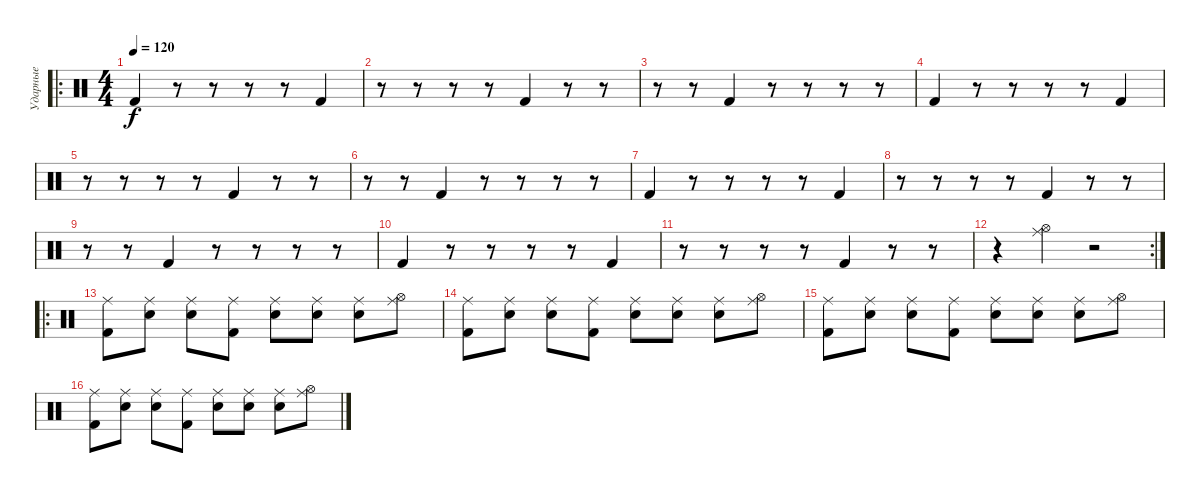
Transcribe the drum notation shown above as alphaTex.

\track ("Ударные" "Ударные") {instrument percussion}
\staff {score}
\articulation defaults
\ro
\ts (4 4)
\tempo 120
\clef neutral
\ks c "Kick (hit) 2".4{dy f}
r.8 r.8 r.8 r.8 "Kick (hit) 2".4 |
r.8 r.8 r.8 r.8 "Kick (hit) 2".4 r.8 r.8 |
r.8 r.8 "Kick (hit) 2".4 r.8 r.8 r.8 r.8 |
"Kick (hit) 2".4 r.8 r.8 r.8 r.8 "Kick (hit) 2".4 |
r.8 r.8 r.8 r.8 "Kick (hit) 2".4 r.8 r.8 |
r.8 r.8 "Kick (hit) 2".4 r.8 r.8 r.8 r.8 |
"Kick (hit) 2".4 r.8 r.8 r.8 r.8 "Kick (hit) 2".4 |
r.8 r.8 r.8 r.8 "Kick (hit) 2".4 r.8 r.8 |
r.8 r.8 "Kick (hit) 2".4 r.8 r.8 r.8 r.8 |
"Kick (hit) 2".4 r.8 r.8 r.8 r.8 "Kick (hit) 2".4 |
r.8 r.8 r.8 r.8 "Kick (hit) 2".4 r.8 r.8 |
\rc 2
r.4 ("Ride (middle)" "Hi-Hat (open)").4 r.2 |
\ro
("Ride (middle)" "Kick (hit) 2").8 ("Ride (middle)" "Electric Snare (hit)").8 ("Ride (middle)" "Snare (hit) 2").8 ("Ride (middle)" "Kick (hit) 2").8 ("Ride (middle)" "Electric Snare (hit)").8 ("Ride (middle)" "Snare (hit) 2").8 ("Ride (middle)" "Electric Snare (hit)").8 ("Ride (middle)" "Hi-Hat (open)").8 |
("Ride (middle)" "Kick (hit) 2").8 ("Ride (middle)" "Electric Snare (hit)").8 ("Ride (middle)" "Snare (hit) 2").8 ("Ride (middle)" "Kick (hit) 2").8 ("Ride (middle)" "Electric Snare (hit)").8 ("Ride (middle)" "Snare (hit) 2").8 ("Ride (middle)" "Electric Snare (hit)").8 ("Ride (middle)" "Hi-Hat (open)").8 |
("Ride (middle)" "Kick (hit) 2").8 ("Ride (middle)" "Electric Snare (hit)").8 ("Ride (middle)" "Snare (hit) 2").8 ("Ride (middle)" "Kick (hit) 2").8 ("Ride (middle)" "Electric Snare (hit)").8 ("Ride (middle)" "Snare (hit) 2").8 ("Ride (middle)" "Electric Snare (hit)").8 ("Ride (middle)" "Hi-Hat (open)").8 |
("Ride (middle)" "Kick (hit) 2").8 ("Ride (middle)" "Electric Snare (hit)").8 ("Ride (middle)" "Snare (hit) 2").8 ("Ride (middle)" "Kick (hit) 2").8 ("Ride (middle)" "Electric Snare (hit)").8 ("Ride (middle)" "Snare (hit) 2").8 ("Ride (middle)" "Electric Snare (hit)").8 ("Ride (middle)" "Hi-Hat (open)").8
